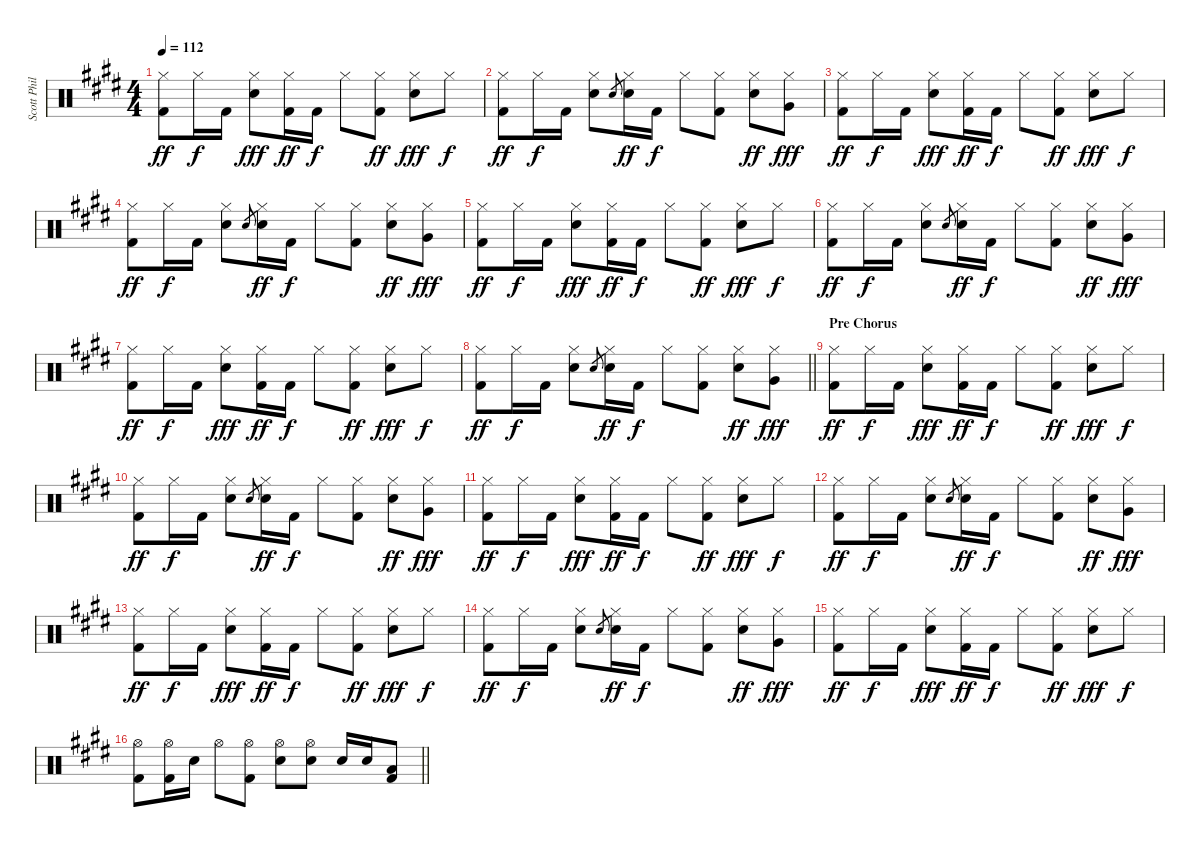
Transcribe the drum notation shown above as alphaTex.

\track ("Scott Phillips" "Scott Phil") {instrument percussion}
\staff {score}
\articulation defaults
\ts (4 4)
\tempo 112
\clef neutral
\ks c#minor
("Hi-Hat (closed)" "Kick (hit) 2").8{dy ff} "Hi-Hat (closed)".16{dy f} "Kick (hit) 2".16 ("Hi-Hat (closed)" "Electric Snare (hit)").8{dy fff} ("Hi-Hat (closed)" "Kick (hit) 2").16{dy ff} "Kick (hit) 2".16{dy f} "Hi-Hat (closed)".8 ("Hi-Hat (closed)" "Kick (hit) 2").8{dy ff} ("Hi-Hat (closed)" "Electric Snare (hit)").8{dy fff} "Hi-Hat (closed)".8{dy f} |
("Hi-Hat (closed)" "Kick (hit) 2").8{dy ff} "Hi-Hat (closed)".16{dy f} "Kick (hit) 2".16 ("Hi-Hat (closed)" "Electric Snare (hit)").8 "Electric Snare (hit)".8{gr} ("Hi-Hat (closed)" "Electric Snare (hit)").16{dy ff} "Kick (hit) 2".16{dy f} "Hi-Hat (closed)".8 ("Hi-Hat (closed)" "Kick (hit) 2").8 ("Hi-Hat (closed)" "Electric Snare (hit)").8{dy ff} ("Hi-Hat (closed)" "Very Low Tom (hit)").8{dy fff} |
("Hi-Hat (closed)" "Kick (hit) 2").8{dy ff} "Hi-Hat (closed)".16{dy f} "Kick (hit) 2".16 ("Hi-Hat (closed)" "Electric Snare (hit)").8{dy fff} ("Hi-Hat (closed)" "Kick (hit) 2").16{dy ff} "Kick (hit) 2".16{dy f} "Hi-Hat (closed)".8 ("Hi-Hat (closed)" "Kick (hit) 2").8{dy ff} ("Hi-Hat (closed)" "Electric Snare (hit)").8{dy fff} "Hi-Hat (closed)".8{dy f} |
("Hi-Hat (closed)" "Kick (hit) 2").8{dy ff} "Hi-Hat (closed)".16{dy f} "Kick (hit) 2".16 ("Hi-Hat (closed)" "Electric Snare (hit)").8 "Electric Snare (hit)".8{gr} ("Hi-Hat (closed)" "Electric Snare (hit)").16{dy ff} "Kick (hit) 2".16{dy f} "Hi-Hat (closed)".8 ("Hi-Hat (closed)" "Kick (hit) 2").8 ("Hi-Hat (closed)" "Electric Snare (hit)").8{dy ff} ("Hi-Hat (closed)" "Very Low Tom (hit)").8{dy fff} |
("Hi-Hat (closed)" "Kick (hit) 2").8{dy ff} "Hi-Hat (closed)".16{dy f} "Kick (hit) 2".16 ("Hi-Hat (closed)" "Electric Snare (hit)").8{dy fff} ("Hi-Hat (closed)" "Kick (hit) 2").16{dy ff} "Kick (hit) 2".16{dy f} "Hi-Hat (closed)".8 ("Hi-Hat (closed)" "Kick (hit) 2").8{dy ff} ("Hi-Hat (closed)" "Electric Snare (hit)").8{dy fff} "Hi-Hat (closed)".8{dy f} |
("Hi-Hat (closed)" "Kick (hit) 2").8{dy ff} "Hi-Hat (closed)".16{dy f} "Kick (hit) 2".16 ("Hi-Hat (closed)" "Electric Snare (hit)").8 "Electric Snare (hit)".8{gr} ("Hi-Hat (closed)" "Electric Snare (hit)").16{dy ff} "Kick (hit) 2".16{dy f} "Hi-Hat (closed)".8 ("Hi-Hat (closed)" "Kick (hit) 2").8 ("Hi-Hat (closed)" "Electric Snare (hit)").8{dy ff} ("Hi-Hat (closed)" "Very Low Tom (hit)").8{dy fff} |
("Hi-Hat (closed)" "Kick (hit) 2").8{dy ff} "Hi-Hat (closed)".16{dy f} "Kick (hit) 2".16 ("Hi-Hat (closed)" "Electric Snare (hit)").8{dy fff} ("Hi-Hat (closed)" "Kick (hit) 2").16{dy ff} "Kick (hit) 2".16{dy f} "Hi-Hat (closed)".8 ("Hi-Hat (closed)" "Kick (hit) 2").8{dy ff} ("Hi-Hat (closed)" "Electric Snare (hit)").8{dy fff} "Hi-Hat (closed)".8{dy f} |
\barLineRight lightlight
("Hi-Hat (closed)" "Kick (hit) 2").8{dy ff} "Hi-Hat (closed)".16{dy f} "Kick (hit) 2".16 ("Hi-Hat (closed)" "Electric Snare (hit)").8 "Electric Snare (hit)".8{gr} ("Hi-Hat (closed)" "Electric Snare (hit)").16{dy ff} "Kick (hit) 2".16{dy f} "Hi-Hat (closed)".8 ("Hi-Hat (closed)" "Kick (hit) 2").8 ("Hi-Hat (closed)" "Electric Snare (hit)").8{dy ff} ("Hi-Hat (closed)" "Very Low Tom (hit)").8{dy fff} |
\section ("" "Pre Chorus")
("Hi-Hat (closed)" "Kick (hit) 2").8{dy ff} "Hi-Hat (closed)".16{dy f} "Kick (hit) 2".16 ("Hi-Hat (closed)" "Electric Snare (hit)").8{dy fff} ("Hi-Hat (closed)" "Kick (hit) 2").16{dy ff} "Kick (hit) 2".16{dy f} "Hi-Hat (closed)".8 ("Hi-Hat (closed)" "Kick (hit) 2").8{dy ff} ("Hi-Hat (closed)" "Electric Snare (hit)").8{dy fff} "Hi-Hat (closed)".8{dy f} |
("Hi-Hat (closed)" "Kick (hit) 2").8{dy ff} "Hi-Hat (closed)".16{dy f} "Kick (hit) 2".16 ("Hi-Hat (closed)" "Electric Snare (hit)").8 "Electric Snare (hit)".8{gr} ("Hi-Hat (closed)" "Electric Snare (hit)").16{dy ff} "Kick (hit) 2".16{dy f} "Hi-Hat (closed)".8 ("Hi-Hat (closed)" "Kick (hit) 2").8 ("Hi-Hat (closed)" "Electric Snare (hit)").8{dy ff} ("Hi-Hat (closed)" "Very Low Tom (hit)").8{dy fff} |
("Hi-Hat (closed)" "Kick (hit) 2").8{dy ff} "Hi-Hat (closed)".16{dy f} "Kick (hit) 2".16 ("Hi-Hat (closed)" "Electric Snare (hit)").8{dy fff} ("Hi-Hat (closed)" "Kick (hit) 2").16{dy ff} "Kick (hit) 2".16{dy f} "Hi-Hat (closed)".8 ("Hi-Hat (closed)" "Kick (hit) 2").8{dy ff} ("Hi-Hat (closed)" "Electric Snare (hit)").8{dy fff} "Hi-Hat (closed)".8{dy f} |
("Hi-Hat (closed)" "Kick (hit) 2").8{dy ff} "Hi-Hat (closed)".16{dy f} "Kick (hit) 2".16 ("Hi-Hat (closed)" "Electric Snare (hit)").8 "Electric Snare (hit)".8{gr} ("Hi-Hat (closed)" "Electric Snare (hit)").16{dy ff} "Kick (hit) 2".16{dy f} "Hi-Hat (closed)".8 ("Hi-Hat (closed)" "Kick (hit) 2").8 ("Hi-Hat (closed)" "Electric Snare (hit)").8{dy ff} ("Hi-Hat (closed)" "Very Low Tom (hit)").8{dy fff} |
("Hi-Hat (closed)" "Kick (hit) 2").8{dy ff} "Hi-Hat (closed)".16{dy f} "Kick (hit) 2".16 ("Hi-Hat (closed)" "Electric Snare (hit)").8{dy fff} ("Hi-Hat (closed)" "Kick (hit) 2").16{dy ff} "Kick (hit) 2".16{dy f} "Hi-Hat (closed)".8 ("Hi-Hat (closed)" "Kick (hit) 2").8{dy ff} ("Hi-Hat (closed)" "Electric Snare (hit)").8{dy fff} "Hi-Hat (closed)".8{dy f} |
("Hi-Hat (closed)" "Kick (hit) 2").8{dy ff} "Hi-Hat (closed)".16{dy f} "Kick (hit) 2".16 ("Hi-Hat (closed)" "Electric Snare (hit)").8 "Electric Snare (hit)".8{gr} ("Hi-Hat (closed)" "Electric Snare (hit)").16{dy ff} "Kick (hit) 2".16{dy f} "Hi-Hat (closed)".8 ("Hi-Hat (closed)" "Kick (hit) 2").8 ("Hi-Hat (closed)" "Electric Snare (hit)").8{dy ff} ("Hi-Hat (closed)" "Very Low Tom (hit)").8{dy fff} |
("Hi-Hat (closed)" "Kick (hit) 2").8{dy ff} "Hi-Hat (closed)".16{dy f} "Kick (hit) 2".16 ("Hi-Hat (closed)" "Electric Snare (hit)").8{dy fff} ("Hi-Hat (closed)" "Kick (hit) 2").16{dy ff} "Kick (hit) 2".16{dy f} "Hi-Hat (closed)".8 ("Hi-Hat (closed)" "Kick (hit) 2").8{dy ff} ("Hi-Hat (closed)" "Electric Snare (hit)").8{dy fff} "Hi-Hat (closed)".8{dy f} |
\barLineRight lightlight
("Hi-Hat (open)" "Kick (hit) 2").8 ("Hi-Hat (open)" "Kick (hit) 2").16 "Electric Snare (hit)".16 "Hi-Hat (open)".8 ("Hi-Hat (open)" "Kick (hit) 2").8 ("Hi-Hat (open)" "Electric Snare (hit)").8 ("Hi-Hat (open)" "Electric Snare (hit)").8 "Electric Snare (hit)".16 "Electric Snare (hit)".16 ("Low Floor Tom (hit)" "Kick (hit) 2").8
